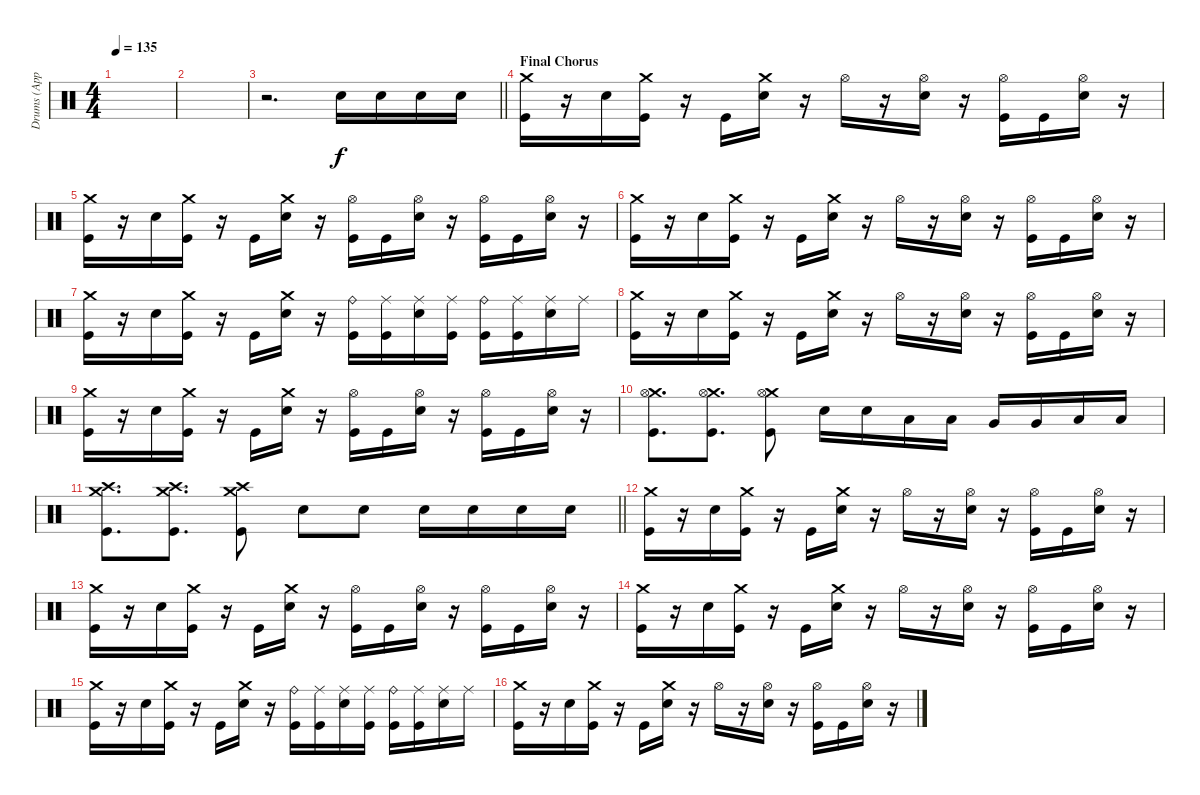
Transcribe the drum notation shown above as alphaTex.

\track ("Drums (Approx.)" "Drums (App") {instrument percussion}
\staff {score}
\articulation defaults
\ts (4 4)
\tempo 135
\clef neutral
\ks c
|
|
\barLineRight lightlight
r.2{d} "Electric Snare (hit)".16 "Electric Snare (hit)".16 "Electric Snare (hit)".16 "Electric Snare (hit)".16 |
\section ("" "Final Chorus")
("Crash medium (hit)" "Kick (hit)").16 r.16 "Electric Snare (hit)".16 ("Crash medium (hit)" "Kick (hit)").16 r.16 "Kick (hit)".16 ("Crash medium (hit)" "Electric Snare (hit)").16 r.16 "Hi-Hat (open)".16 r.16 ("Hi-Hat (open)" "Electric Snare (hit)").16 r.16 ("Hi-Hat (open)" "Kick (hit)").16 "Kick (hit)".16 ("Hi-Hat (open)" "Electric Snare (hit)").16 r.16 |
("Crash medium (hit)" "Kick (hit)").16 r.16 "Electric Snare (hit)".16 ("Crash medium (hit)" "Kick (hit)").16 r.16 "Kick (hit)".16 ("Crash medium (hit)" "Electric Snare (hit)").16 r.16 ("Hi-Hat (open)" "Kick (hit)").16 "Kick (hit)".16 ("Hi-Hat (open)" "Electric Snare (hit)").16 r.16 ("Hi-Hat (open)" "Kick (hit)").16 "Kick (hit)".16 ("Hi-Hat (open)" "Electric Snare (hit)").16 r.16 |
("Crash medium (hit)" "Kick (hit)").16 r.16 "Electric Snare (hit)".16 ("Crash medium (hit)" "Kick (hit)").16 r.16 "Kick (hit)".16 ("Crash medium (hit)" "Electric Snare (hit)").16 r.16 "Hi-Hat (open)".16 r.16 ("Hi-Hat (open)" "Electric Snare (hit)").16 r.16 ("Hi-Hat (open)" "Kick (hit)").16 "Kick (hit)".16 ("Hi-Hat (open)" "Electric Snare (hit)").16 r.16 |
("Crash medium (hit)" "Kick (hit)").16 r.16 "Electric Snare (hit)".16 ("Crash medium (hit)" "Kick (hit)").16 r.16 "Kick (hit)".16 ("Crash medium (hit)" "Electric Snare (hit)").16 r.16 ("Ride (bell)" "Kick (hit)").16 ("Ride (middle)" "Kick (hit)").16 ("Ride (middle)" "Electric Snare (hit)").16 ("Ride (middle)" "Kick (hit)").16 ("Ride (bell)" "Kick (hit)").16 ("Ride (middle)" "Kick (hit)").16 ("Ride (middle)" "Electric Snare (hit)").16 "Ride (middle)".16 |
("Crash medium (hit)" "Kick (hit)").16 r.16 "Electric Snare (hit)".16 ("Crash medium (hit)" "Kick (hit)").16 r.16 "Kick (hit)".16 ("Crash medium (hit)" "Electric Snare (hit)").16 r.16 "Hi-Hat (open)".16 r.16 ("Hi-Hat (open)" "Electric Snare (hit)").16 r.16 ("Hi-Hat (open)" "Kick (hit)").16 "Kick (hit)".16 ("Hi-Hat (open)" "Electric Snare (hit)").16 r.16 |
("Crash medium (hit)" "Kick (hit)").16 r.16 "Electric Snare (hit)".16 ("Crash medium (hit)" "Kick (hit)").16 r.16 "Kick (hit)".16 ("Crash medium (hit)" "Electric Snare (hit)").16 r.16 ("Hi-Hat (open)" "Kick (hit)").16 "Kick (hit)".16 ("Hi-Hat (open)" "Electric Snare (hit)").16 r.16 ("Hi-Hat (open)" "Kick (hit)").16 "Kick (hit)".16 ("Hi-Hat (open)" "Electric Snare (hit)").16 r.16 |
("Crash medium (hit)" "Hi-Hat (open)" "Kick (hit)").8{d} ("Crash medium (hit)" "Hi-Hat (open)" "Kick (hit)").8{d} ("Crash medium (hit)" "Hi-Hat (open)" "Kick (hit)").8 "Electric Snare (hit)".16 "Electric Snare (hit)".16 "Low Tom (hit)".16 "Low Tom (hit)".16 "Very Low Tom (hit)".16 "Very Low Tom (hit)".16 "Low Floor Tom (hit)".16 "Low Floor Tom (hit)".16 |
\barLineRight lightlight
("Crash medium (hit)" "Crash high (hit)" "Kick (hit)").8{d} ("Crash medium (hit)" "Crash high (hit)" "Kick (hit)").8{d} ("Crash medium (hit)" "Crash high (hit)" "Kick (hit)").8 "Electric Snare (hit)".8 "Electric Snare (hit)".8 "Electric Snare (hit)".16 "Electric Snare (hit)".16 "Electric Snare (hit)".16 "Electric Snare (hit)".16 |
("Crash medium (hit)" "Kick (hit)").16 r.16 "Electric Snare (hit)".16 ("Crash medium (hit)" "Kick (hit)").16 r.16 "Kick (hit)".16 ("Crash medium (hit)" "Electric Snare (hit)").16 r.16 "Hi-Hat (open)".16 r.16 ("Hi-Hat (open)" "Electric Snare (hit)").16 r.16 ("Hi-Hat (open)" "Kick (hit)").16 "Kick (hit)".16 ("Hi-Hat (open)" "Electric Snare (hit)").16 r.16 |
("Crash medium (hit)" "Kick (hit)").16 r.16 "Electric Snare (hit)".16 ("Crash medium (hit)" "Kick (hit)").16 r.16 "Kick (hit)".16 ("Crash medium (hit)" "Electric Snare (hit)").16 r.16 ("Hi-Hat (open)" "Kick (hit)").16 "Kick (hit)".16 ("Hi-Hat (open)" "Electric Snare (hit)").16 r.16 ("Hi-Hat (open)" "Kick (hit)").16 "Kick (hit)".16 ("Hi-Hat (open)" "Electric Snare (hit)").16 r.16 |
("Crash medium (hit)" "Kick (hit)").16 r.16 "Electric Snare (hit)".16 ("Crash medium (hit)" "Kick (hit)").16 r.16 "Kick (hit)".16 ("Crash medium (hit)" "Electric Snare (hit)").16 r.16 "Hi-Hat (open)".16 r.16 ("Hi-Hat (open)" "Electric Snare (hit)").16 r.16 ("Hi-Hat (open)" "Kick (hit)").16 "Kick (hit)".16 ("Hi-Hat (open)" "Electric Snare (hit)").16 r.16 |
("Crash medium (hit)" "Kick (hit)").16 r.16 "Electric Snare (hit)".16 ("Crash medium (hit)" "Kick (hit)").16 r.16 "Kick (hit)".16 ("Crash medium (hit)" "Electric Snare (hit)").16 r.16 ("Ride (bell)" "Kick (hit)").16 ("Ride (middle)" "Kick (hit)").16 ("Ride (middle)" "Electric Snare (hit)").16 ("Ride (middle)" "Kick (hit)").16 ("Ride (bell)" "Kick (hit)").16 ("Ride (middle)" "Kick (hit)").16 ("Ride (middle)" "Electric Snare (hit)").16 "Ride (middle)".16 |
("Crash medium (hit)" "Kick (hit)").16 r.16 "Electric Snare (hit)".16 ("Crash medium (hit)" "Kick (hit)").16 r.16 "Kick (hit)".16 ("Crash medium (hit)" "Electric Snare (hit)").16 r.16 "Hi-Hat (open)".16 r.16 ("Hi-Hat (open)" "Electric Snare (hit)").16 r.16 ("Hi-Hat (open)" "Kick (hit)").16 "Kick (hit)".16 ("Hi-Hat (open)" "Electric Snare (hit)").16 r.16
